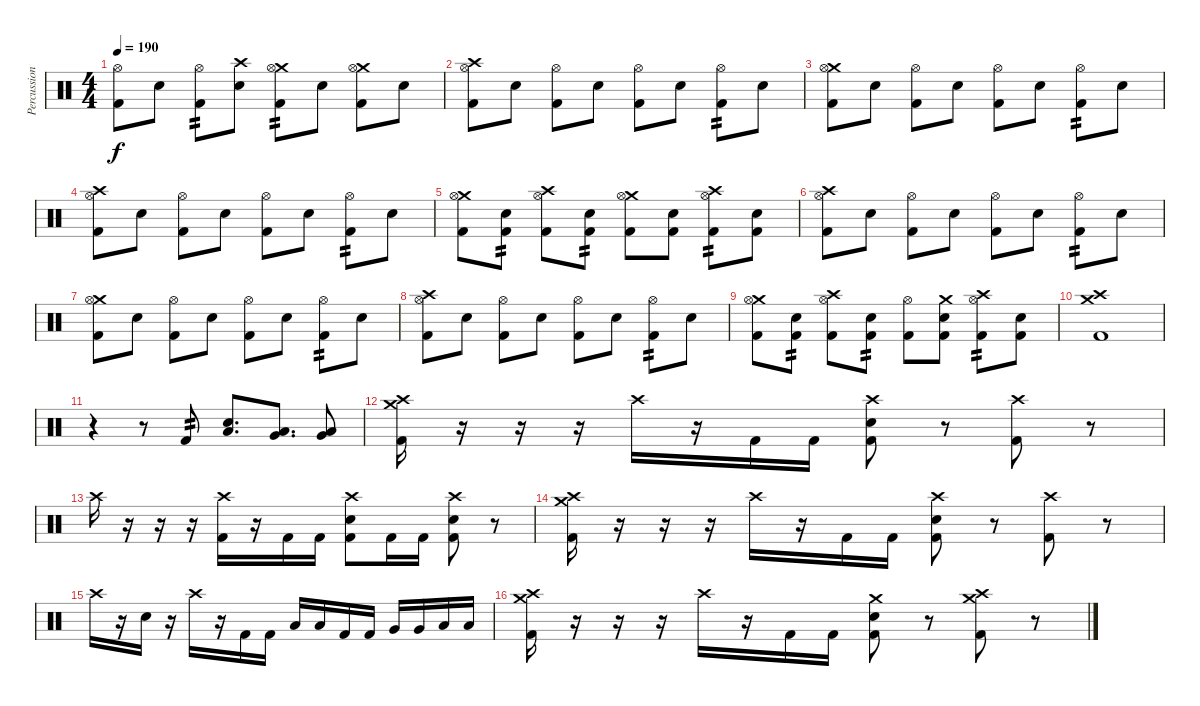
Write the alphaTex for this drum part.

\track ("Percussion" "Percussion") {instrument percussion}
\staff {score}
\articulation defaults
\ts (4 4)
\tempo 190
\clef neutral
\ks c
("Hi-Hat (open)" "Kick (hit) 2").8{dy f} "Electric Snare (hit)".8 ("Hi-Hat (open)" "Kick (hit) 2").8{tp 2} ("Crash high (hit)" "Electric Snare (hit)").8 ("Crash medium (hit)" "Hi-Hat (open)" "Kick (hit) 2").8{tp 2} "Electric Snare (hit)".8 ("Crash medium (hit)" "Hi-Hat (open)" "Kick (hit) 2").8 "Electric Snare (hit)".8 |
("Crash high (hit)" "Hi-Hat (open)" "Kick (hit) 2").8 "Electric Snare (hit)".8 ("Hi-Hat (open)" "Kick (hit) 2").8 "Electric Snare (hit)".8 ("Hi-Hat (open)" "Kick (hit) 2").8 "Electric Snare (hit)".8 ("Hi-Hat (open)" "Kick (hit) 2").8{tp 2} "Electric Snare (hit)".8 |
("Crash medium (hit)" "Hi-Hat (open)" "Kick (hit) 2").8 "Electric Snare (hit)".8 ("Hi-Hat (open)" "Kick (hit) 2").8 "Electric Snare (hit)".8 ("Hi-Hat (open)" "Kick (hit) 2").8 "Electric Snare (hit)".8 ("Hi-Hat (open)" "Kick (hit) 2").8{tp 2} "Electric Snare (hit)".8 |
("Crash high (hit)" "Hi-Hat (open)" "Kick (hit) 2").8 "Electric Snare (hit)".8 ("Hi-Hat (open)" "Kick (hit) 2").8 "Electric Snare (hit)".8 ("Hi-Hat (open)" "Kick (hit) 2").8 "Electric Snare (hit)".8 ("Hi-Hat (open)" "Kick (hit) 2").8{tp 2} "Electric Snare (hit)".8 |
("Crash medium (hit)" "Hi-Hat (open)" "Kick (hit) 2").8 ("Electric Snare (hit)" "Kick (hit) 2").8{tp 2} ("Crash high (hit)" "Hi-Hat (open)" "Kick (hit) 2").8 ("Electric Snare (hit)" "Kick (hit) 2").8{tp 2} ("Crash medium (hit)" "Hi-Hat (open)" "Kick (hit) 2").8 ("Electric Snare (hit)" "Kick (hit) 2").8 ("Crash high (hit)" "Hi-Hat (open)" "Kick (hit) 2").8{tp 2} ("Electric Snare (hit)" "Kick (hit) 2").8 |
("Crash high (hit)" "Hi-Hat (open)" "Kick (hit) 2").8 "Electric Snare (hit)".8 ("Hi-Hat (open)" "Kick (hit) 2").8 "Electric Snare (hit)".8 ("Hi-Hat (open)" "Kick (hit) 2").8 "Electric Snare (hit)".8 ("Hi-Hat (open)" "Kick (hit) 2").8{tp 2} "Electric Snare (hit)".8 |
("Crash medium (hit)" "Hi-Hat (open)" "Kick (hit) 2").8 "Electric Snare (hit)".8 ("Hi-Hat (open)" "Kick (hit) 2").8 "Electric Snare (hit)".8 ("Hi-Hat (open)" "Kick (hit) 2").8 "Electric Snare (hit)".8 ("Hi-Hat (open)" "Kick (hit) 2").8{tp 2} "Electric Snare (hit)".8 |
("Crash high (hit)" "Hi-Hat (open)" "Kick (hit) 2").8 "Electric Snare (hit)".8 ("Hi-Hat (open)" "Kick (hit) 2").8 "Electric Snare (hit)".8 ("Hi-Hat (open)" "Kick (hit) 2").8 "Electric Snare (hit)".8 ("Hi-Hat (open)" "Kick (hit) 2").8{tp 2} "Electric Snare (hit)".8 |
("Crash medium (hit)" "Hi-Hat (open)" "Kick (hit) 2").8 ("Electric Snare (hit)" "Kick (hit) 2").8{tp 2} ("Crash high (hit)" "Hi-Hat (open)" "Kick (hit) 2").8 ("Electric Snare (hit)" "Kick (hit) 2").8{tp 2} ("Hi-Hat (open)" "Kick (hit) 2").8 ("Crash medium (hit)" "Electric Snare (hit)" "Kick (hit) 2").8 ("Crash high (hit)" "Hi-Hat (open)" "Kick (hit) 2").8{tp 2} ("Electric Snare (hit)" "Kick (hit) 2").8 |
("Crash medium (hit)" "Crash high (hit)" "Kick (hit) 2").1 |
r.4 r.8 "Kick (hit) 2".8{tp 2} ("Electric Snare (hit)" "Low Tom (hit)").8{d} ("Low Tom (hit)" "Very Low Tom (hit)").8{d} ("Very Low Tom (hit)" "Low Floor Tom (hit)").8 |
("Crash medium (hit)" "Crash high (hit)" "Kick (hit) 2").16 r.16 r.16 r.16 "Crash high (hit)".16 r.16 "Kick (hit) 2".16 "Kick (hit) 2".16 ("Crash high (hit)" "Electric Snare (hit)" "Kick (hit) 2").8 r.8 ("Crash high (hit)" "Kick (hit) 2").8 r.8 |
"Crash high (hit)".16 r.16 r.16 r.16 ("Crash high (hit)" "Kick (hit) 2").16 r.16 "Kick (hit) 2".16 "Kick (hit) 2".16 ("Crash high (hit)" "Electric Snare (hit)" "Kick (hit) 2").8 "Kick (hit) 2".16 "Kick (hit) 2".16 ("Crash high (hit)" "Electric Snare (hit)" "Kick (hit) 2").8 r.8 |
("Crash medium (hit)" "Crash high (hit)" "Kick (hit) 2").16 r.16 r.16 r.16 "Crash high (hit)".16 r.16 "Kick (hit) 2".16 "Kick (hit) 2".16 ("Crash high (hit)" "Electric Snare (hit)" "Kick (hit) 2").8 r.8 ("Crash high (hit)" "Kick (hit) 2").8 r.8 |
"Crash high (hit)".16 r.16 "Electric Snare (hit)".16 r.16 "Crash high (hit)".16 r.16 "Kick (hit) 2".16 "Kick (hit) 2".16 "Low Tom (hit)".16 "Low Tom (hit)".16 "Kick (hit) 2".16 "Kick (hit) 2".16 "Very Low Tom (hit)".16 "Very Low Tom (hit)".16 "Low Floor Tom (hit)".16 "Low Floor Tom (hit)".16 |
("Crash medium (hit)" "Crash high (hit)" "Kick (hit) 2").16 r.16 r.16 r.16 "Crash high (hit)".16 r.16 "Kick (hit) 2".16 "Kick (hit) 2".16 ("Crash medium (hit)" "Electric Snare (hit)" "Kick (hit) 2").8 r.8 ("Crash medium (hit)" "Crash high (hit)" "Kick (hit) 2").8 r.8
